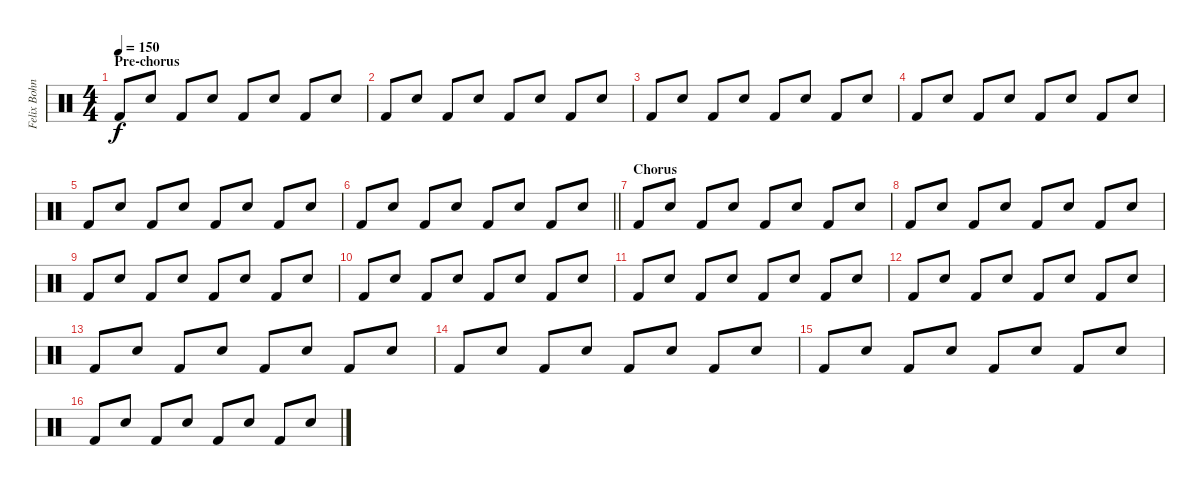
\track ("Felix Bohnke - Drums" "Felix Bohn") {mute instrument percussion}
\staff {score}
\articulation defaults
\ts (4 4)
\section ("" "Pre-chorus")
\tempo 150
\clef neutral
\ks c "Kick (hit) 2".8{dy f} "Snare (hit) 2".8 "Kick (hit) 2".8 "Snare (hit) 2".8 "Kick (hit) 2".8 "Snare (hit) 2".8 "Kick (hit) 2".8 "Snare (hit) 2".8
|
"Kick (hit) 2".8 "Snare (hit) 2".8 "Kick (hit) 2".8 "Snare (hit) 2".8 "Kick (hit) 2".8 "Snare (hit) 2".8 "Kick (hit) 2".8 "Snare (hit) 2".8 |
"Kick (hit) 2".8 "Snare (hit) 2".8 "Kick (hit) 2".8 "Snare (hit) 2".8 "Kick (hit) 2".8 "Snare (hit) 2".8 "Kick (hit) 2".8 "Snare (hit) 2".8 |
"Kick (hit) 2".8 "Snare (hit) 2".8 "Kick (hit) 2".8 "Snare (hit) 2".8 "Kick (hit) 2".8 "Snare (hit) 2".8 "Kick (hit) 2".8 "Snare (hit) 2".8 |
"Kick (hit) 2".8 "Snare (hit) 2".8 "Kick (hit) 2".8 "Snare (hit) 2".8 "Kick (hit) 2".8 "Snare (hit) 2".8 "Kick (hit) 2".8 "Snare (hit) 2".8 |
\barLineRight lightlight "Kick (hit) 2".8 "Snare (hit) 2".8 "Kick (hit) 2".8 "Snare (hit) 2".8 "Kick (hit) 2".8 "Snare (hit) 2".8 "Kick (hit) 2".8 "Snare (hit) 2".8
|
\section ("" "Chorus")
"Kick (hit) 2".8 "Snare (hit) 2".8 "Kick (hit) 2".8 "Snare (hit) 2".8 "Kick (hit) 2".8 "Snare (hit) 2".8 "Kick (hit) 2".8 "Snare (hit) 2".8 |
"Kick (hit) 2".8 "Snare (hit) 2".8 "Kick (hit) 2".8 "Snare (hit) 2".8 "Kick (hit) 2".8 "Snare (hit) 2".8 "Kick (hit) 2".8 "Snare (hit) 2".8 |
"Kick (hit) 2".8 "Snare (hit) 2".8 "Kick (hit) 2".8 "Snare (hit) 2".8 "Kick (hit) 2".8 "Snare (hit) 2".8 "Kick (hit) 2".8 "Snare (hit) 2".8 |
"Kick (hit) 2".8 "Snare (hit) 2".8 "Kick (hit) 2".8 "Snare (hit) 2".8 "Kick (hit) 2".8 "Snare (hit) 2".8 "Kick (hit) 2".8 "Snare (hit) 2".8 |
"Kick (hit) 2".8 "Snare (hit) 2".8 "Kick (hit) 2".8 "Snare (hit) 2".8 "Kick (hit) 2".8 "Snare (hit) 2".8 "Kick (hit) 2".8 "Snare (hit) 2".8 |
"Kick (hit) 2".8 "Snare (hit) 2".8 "Kick (hit) 2".8 "Snare (hit) 2".8 "Kick (hit) 2".8 "Snare (hit) 2".8 "Kick (hit) 2".8 "Snare (hit) 2".8 |
"Kick (hit) 2".8 "Snare (hit) 2".8 "Kick (hit) 2".8 "Snare (hit) 2".8 "Kick (hit) 2".8 "Snare (hit) 2".8 "Kick (hit) 2".8 "Snare (hit) 2".8 |
"Kick (hit) 2".8 "Snare (hit) 2".8 "Kick (hit) 2".8 "Snare (hit) 2".8 "Kick (hit) 2".8 "Snare (hit) 2".8 "Kick (hit) 2".8 "Snare (hit) 2".8 |
"Kick (hit) 2".8 "Snare (hit) 2".8 "Kick (hit) 2".8 "Snare (hit) 2".8 "Kick (hit) 2".8 "Snare (hit) 2".8 "Kick (hit) 2".8 "Snare (hit) 2".8 |
"Kick (hit) 2".8 "Snare (hit) 2".8 "Kick (hit) 2".8 "Snare (hit) 2".8 "Kick (hit) 2".8 "Snare (hit) 2".8 "Kick (hit) 2".8 "Snare (hit) 2".8
